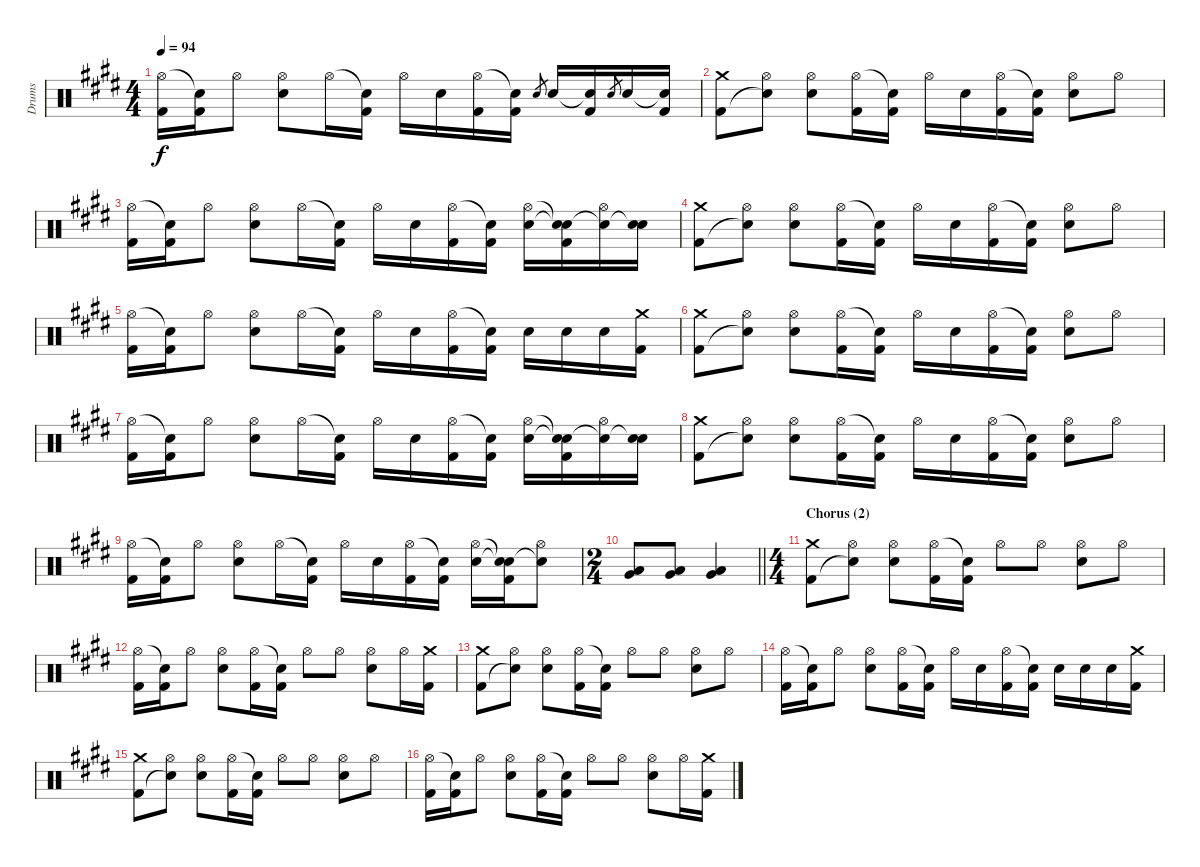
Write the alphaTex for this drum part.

\track ("Drums" "Drums") {instrument percussion}
\staff {score}
\articulation defaults
\ts (4 4)
\tempo 94
\clef neutral
\ks c#minor
("Hi-Hat (open)" "Kick (hit) 2").16{dy f} ("Snare (hit)"{t} "Kick (hit) 2").16 "Hi-Hat (open)".8 ("Hi-Hat (open)" "Electric Snare (hit)").8 "Hi-Hat (open)".16 ("Snare (hit)"{t} "Kick (hit) 2").16 "Hi-Hat (open)".16 "Electric Snare (hit)".16 ("Hi-Hat (open)" "Kick (hit) 2").16 ("Snare (hit)"{t} "Kick (hit) 2").16 "Electric Snare (hit)".8{gr} "Electric Snare (hit)".16 ("Electric Snare (hit)"{t} "Kick (hit) 2").16 "Electric Snare (hit)".8{gr} "Electric Snare (hit)".16 ("Electric Snare (hit)"{t} "Kick (hit) 2").16 |
("Crash medium (hit)" "Kick (hit) 2").8 ("Hi-Hat (open)" "Snare (hit)"{t}).8 ("Hi-Hat (open)" "Electric Snare (hit)").8 ("Hi-Hat (open)" "Kick (hit) 2").16 ("Snare (hit)"{t} "Kick (hit) 2").16 "Hi-Hat (open)".16 "Electric Snare (hit)".16 ("Hi-Hat (open)" "Kick (hit) 2").16 ("Snare (hit)"{t} "Kick (hit) 2").16 ("Hi-Hat (open)" "Electric Snare (hit)").8 "Hi-Hat (open)".8 |
("Hi-Hat (open)" "Kick (hit) 2").16 ("Snare (hit)"{t} "Kick (hit) 2").16 "Hi-Hat (open)".8 ("Hi-Hat (open)" "Electric Snare (hit)").8 "Hi-Hat (open)".16 ("Snare (hit)"{t} "Kick (hit) 2").16 "Hi-Hat (open)".16 "Electric Snare (hit)".16 ("Hi-Hat (open)" "Kick (hit) 2").16 ("Snare (hit)"{t} "Kick (hit) 2").16 ("Hi-Hat (open)" "Electric Snare (hit)").16 ("Snare (hit)"{t} "Snare (hit)"{t} "Kick (hit) 2").16 ("Hi-Hat (open)" "Snare (hit)"{t}).16 ("Electric Snare (hit)" "Snare (hit)"{t}).16 |
("Crash medium (hit)" "Kick (hit) 2").8 ("Hi-Hat (open)" "Snare (hit)"{t}).8 ("Hi-Hat (open)" "Electric Snare (hit)").8 ("Hi-Hat (open)" "Kick (hit) 2").16 ("Snare (hit)"{t} "Kick (hit) 2").16 "Hi-Hat (open)".16 "Electric Snare (hit)".16 ("Hi-Hat (open)" "Kick (hit) 2").16 ("Snare (hit)"{t} "Kick (hit) 2").16 ("Hi-Hat (open)" "Electric Snare (hit)").8 "Hi-Hat (open)".8 |
("Hi-Hat (open)" "Kick (hit) 2").16 ("Snare (hit)"{t} "Kick (hit) 2").16 "Hi-Hat (open)".8 ("Hi-Hat (open)" "Electric Snare (hit)").8 "Hi-Hat (open)".16 ("Snare (hit)"{t} "Kick (hit) 2").16 "Hi-Hat (open)".16 "Electric Snare (hit)".16 ("Hi-Hat (open)" "Kick (hit) 2").16 ("Snare (hit)"{t} "Kick (hit) 2").16 "Electric Snare (hit)".16 "Electric Snare (hit)".16 "Electric Snare (hit)".16 ("Crash medium (hit)" "Kick (hit) 2").16 |
("Crash medium (hit)" "Kick (hit) 2").8 ("Hi-Hat (open)" "Snare (hit)"{t}).8 ("Hi-Hat (open)" "Electric Snare (hit)").8 ("Hi-Hat (open)" "Kick (hit) 2").16 ("Snare (hit)"{t} "Kick (hit) 2").16 "Hi-Hat (open)".16 "Electric Snare (hit)".16 ("Hi-Hat (open)" "Kick (hit) 2").16 ("Snare (hit)"{t} "Kick (hit) 2").16 ("Hi-Hat (open)" "Electric Snare (hit)").8 "Hi-Hat (open)".8 |
("Hi-Hat (open)" "Kick (hit) 2").16 ("Snare (hit)"{t} "Kick (hit) 2").16 "Hi-Hat (open)".8 ("Hi-Hat (open)" "Electric Snare (hit)").8 "Hi-Hat (open)".16 ("Snare (hit)"{t} "Kick (hit) 2").16 "Hi-Hat (open)".16 "Electric Snare (hit)".16 ("Hi-Hat (open)" "Kick (hit) 2").16 ("Snare (hit)"{t} "Kick (hit) 2").16 ("Hi-Hat (open)" "Electric Snare (hit)").16 ("Snare (hit)"{t} "Snare (hit)"{t} "Kick (hit) 2").16 ("Hi-Hat (open)" "Snare (hit)"{t}).16 ("Electric Snare (hit)" "Snare (hit)"{t}).16 |
("Crash medium (hit)" "Kick (hit) 2").8 ("Hi-Hat (open)" "Snare (hit)"{t}).8 ("Hi-Hat (open)" "Electric Snare (hit)").8 ("Hi-Hat (open)" "Kick (hit) 2").16 ("Snare (hit)"{t} "Kick (hit) 2").16 "Hi-Hat (open)".16 "Electric Snare (hit)".16 ("Hi-Hat (open)" "Kick (hit) 2").16 ("Snare (hit)"{t} "Kick (hit) 2").16 ("Hi-Hat (open)" "Electric Snare (hit)").8 "Hi-Hat (open)".8 |
("Hi-Hat (open)" "Kick (hit) 2").16 ("Snare (hit)"{t} "Kick (hit) 2").16 "Hi-Hat (open)".8 ("Hi-Hat (open)" "Electric Snare (hit)").8 "Hi-Hat (open)".16 ("Snare (hit)"{t} "Kick (hit) 2").16 "Hi-Hat (open)".16 "Electric Snare (hit)".16 ("Hi-Hat (open)" "Kick (hit) 2").16 ("Snare (hit)"{t} "Kick (hit) 2").16 ("Hi-Hat (open)" "Electric Snare (hit)").16 ("Snare (hit)"{t} "Electric Snare (hit)"{t} "Kick (hit) 2").16 ("Hi-Hat (open)" "Snare (hit)"{t}).8 |
\ts (2 4)
\barLineRight lightlight
("Very Low Tom (hit)" "Low Floor Tom (hit)").8 ("Very Low Tom (hit)" "Low Floor Tom (hit)").8 ("Very Low Tom (hit)" "Low Floor Tom (hit)").4 |
\ts (4 4)
\section ("" "Chorus (2)")
("Crash medium (hit)" "Kick (hit) 2").8 ("Hi-Hat (open)" "Snare (hit)"{t}).8 ("Hi-Hat (open)" "Electric Snare (hit)").8 ("Hi-Hat (open)" "Kick (hit) 2").16 ("Snare (hit)"{t} "Kick (hit) 2").16 "Hi-Hat (open)".8 "Hi-Hat (open)".8 ("Hi-Hat (open)" "Electric Snare (hit)").8 "Hi-Hat (open)".8 |
("Hi-Hat (open)" "Kick (hit) 2").16 ("Snare (hit)"{t} "Kick (hit) 2").16 "Hi-Hat (open)".8 ("Hi-Hat (open)" "Electric Snare (hit)").8 ("Hi-Hat (open)" "Kick (hit) 2").16 ("Snare (hit)"{t} "Kick (hit) 2").16 "Hi-Hat (open)".8 "Hi-Hat (open)".8 ("Hi-Hat (open)" "Electric Snare (hit)").8 "Hi-Hat (open)".16 ("Crash medium (hit)" "Kick (hit) 2").16 |
("Crash medium (hit)" "Kick (hit) 2").8 ("Hi-Hat (open)" "Snare (hit)"{t}).8 ("Hi-Hat (open)" "Electric Snare (hit)").8 ("Hi-Hat (open)" "Kick (hit) 2").16 ("Snare (hit)"{t} "Kick (hit) 2").16 "Hi-Hat (open)".8 "Hi-Hat (open)".8 ("Hi-Hat (open)" "Electric Snare (hit)").8 "Hi-Hat (open)".8 |
("Hi-Hat (open)" "Kick (hit) 2").16 ("Snare (hit)"{t} "Kick (hit) 2").16 "Hi-Hat (open)".8 ("Hi-Hat (open)" "Electric Snare (hit)").8 ("Hi-Hat (open)" "Kick (hit) 2").16 ("Snare (hit)"{t} "Kick (hit) 2").16 "Hi-Hat (open)".16 "Electric Snare (hit)".16 ("Hi-Hat (open)" "Kick (hit) 2").16 ("Snare (hit)"{t} "Kick (hit) 2").16 "Electric Snare (hit)".16 "Electric Snare (hit)".16 "Electric Snare (hit)".16 ("Crash medium (hit)" "Kick (hit) 2").16 |
("Crash medium (hit)" "Kick (hit) 2").8 ("Hi-Hat (open)" "Snare (hit)"{t}).8 ("Hi-Hat (open)" "Electric Snare (hit)").8 ("Hi-Hat (open)" "Kick (hit) 2").16 ("Snare (hit)"{t} "Kick (hit) 2").16 "Hi-Hat (open)".8 "Hi-Hat (open)".8 ("Hi-Hat (open)" "Electric Snare (hit)").8 "Hi-Hat (open)".8 |
("Hi-Hat (open)" "Kick (hit) 2").16 ("Snare (hit)"{t} "Kick (hit) 2").16 "Hi-Hat (open)".8 ("Hi-Hat (open)" "Electric Snare (hit)").8 ("Hi-Hat (open)" "Kick (hit) 2").16 ("Snare (hit)"{t} "Kick (hit) 2").16 "Hi-Hat (open)".8 "Hi-Hat (open)".8 ("Hi-Hat (open)" "Electric Snare (hit)").8 "Hi-Hat (open)".16 ("Crash medium (hit)" "Kick (hit) 2").16
